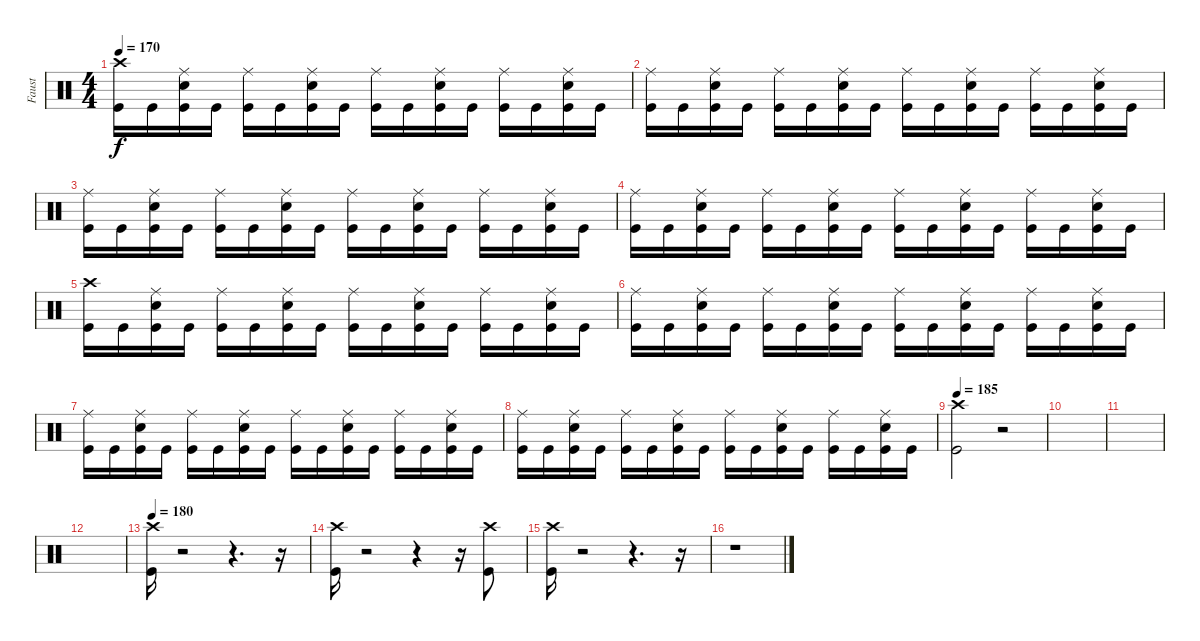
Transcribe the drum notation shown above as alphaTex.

\track ("Faust" "Faust") {instrument percussion}
\staff {score}
\articulation defaults
\ts (4 4)
\tempo 170
\clef neutral
\ks c
("Kick (hit)" "Crash high (hit)").16{dy f} "Kick (hit)".16 ("Kick (hit)" "Snare (hit) 2" "Ride (middle)").16 "Kick (hit)".16 ("Kick (hit)" "Ride (middle)").16 "Kick (hit)".16 ("Kick (hit)" "Snare (hit) 2" "Ride (middle)").16 "Kick (hit)".16 ("Kick (hit)" "Ride (middle)").16 "Kick (hit)".16 ("Kick (hit)" "Snare (hit) 2" "Ride (middle)").16 "Kick (hit)".16 ("Kick (hit)" "Ride (middle)").16 "Kick (hit)".16 ("Kick (hit)" "Snare (hit) 2" "Ride (middle)").16 "Kick (hit)".16 |
("Kick (hit)" "Ride (middle)").16 "Kick (hit)".16 ("Kick (hit)" "Snare (hit) 2" "Ride (middle)").16 "Kick (hit)".16 ("Kick (hit)" "Ride (middle)").16 "Kick (hit)".16 ("Kick (hit)" "Snare (hit) 2" "Ride (middle)").16 "Kick (hit)".16 ("Kick (hit)" "Ride (middle)").16 "Kick (hit)".16 ("Kick (hit)" "Snare (hit) 2" "Ride (middle)").16 "Kick (hit)".16 ("Kick (hit)" "Ride (middle)").16 "Kick (hit)".16 ("Kick (hit)" "Snare (hit) 2" "Ride (middle)").16 "Kick (hit)".16 |
("Kick (hit)" "Ride (middle)").16 "Kick (hit)".16 ("Kick (hit)" "Snare (hit) 2" "Ride (middle)").16 "Kick (hit)".16 ("Kick (hit)" "Ride (middle)").16 "Kick (hit)".16 ("Kick (hit)" "Snare (hit) 2" "Ride (middle)").16 "Kick (hit)".16 ("Kick (hit)" "Ride (middle)").16 "Kick (hit)".16 ("Kick (hit)" "Snare (hit) 2" "Ride (middle)").16 "Kick (hit)".16 ("Kick (hit)" "Ride (middle)").16 "Kick (hit)".16 ("Kick (hit)" "Snare (hit) 2" "Ride (middle)").16 "Kick (hit)".16 |
("Kick (hit)" "Ride (middle)").16 "Kick (hit)".16 ("Kick (hit)" "Snare (hit) 2" "Ride (middle)").16 "Kick (hit)".16 ("Kick (hit)" "Ride (middle)").16 "Kick (hit)".16 ("Kick (hit)" "Snare (hit) 2" "Ride (middle)").16 "Kick (hit)".16 ("Kick (hit)" "Ride (middle)").16 "Kick (hit)".16 ("Kick (hit)" "Snare (hit) 2" "Ride (middle)").16 "Kick (hit)".16 ("Kick (hit)" "Ride (middle)").16 "Kick (hit)".16 ("Kick (hit)" "Snare (hit) 2" "Ride (middle)").16 "Kick (hit)".16 |
("Kick (hit)" "Crash high (hit)").16 "Kick (hit)".16 ("Kick (hit)" "Snare (hit) 2" "Ride (middle)").16 "Kick (hit)".16 ("Kick (hit)" "Ride (middle)").16 "Kick (hit)".16 ("Kick (hit)" "Snare (hit) 2" "Ride (middle)").16 "Kick (hit)".16 ("Kick (hit)" "Ride (middle)").16 "Kick (hit)".16 ("Kick (hit)" "Snare (hit) 2" "Ride (middle)").16 "Kick (hit)".16 ("Kick (hit)" "Ride (middle)").16 "Kick (hit)".16 ("Kick (hit)" "Snare (hit) 2" "Ride (middle)").16 "Kick (hit)".16 |
("Kick (hit)" "Ride (middle)").16 "Kick (hit)".16 ("Kick (hit)" "Snare (hit) 2" "Ride (middle)").16 "Kick (hit)".16 ("Kick (hit)" "Ride (middle)").16 "Kick (hit)".16 ("Kick (hit)" "Snare (hit) 2" "Ride (middle)").16 "Kick (hit)".16 ("Kick (hit)" "Ride (middle)").16 "Kick (hit)".16 ("Kick (hit)" "Snare (hit) 2" "Ride (middle)").16 "Kick (hit)".16 ("Kick (hit)" "Ride (middle)").16 "Kick (hit)".16 ("Kick (hit)" "Snare (hit) 2" "Ride (middle)").16 "Kick (hit)".16 |
("Kick (hit)" "Ride (middle)").16 "Kick (hit)".16 ("Kick (hit)" "Snare (hit) 2" "Ride (middle)").16 "Kick (hit)".16 ("Kick (hit)" "Ride (middle)").16 "Kick (hit)".16 ("Kick (hit)" "Snare (hit) 2" "Ride (middle)").16 "Kick (hit)".16 ("Kick (hit)" "Ride (middle)").16 "Kick (hit)".16 ("Kick (hit)" "Snare (hit) 2" "Ride (middle)").16 "Kick (hit)".16 ("Kick (hit)" "Ride (middle)").16 "Kick (hit)".16 ("Kick (hit)" "Snare (hit) 2" "Ride (middle)").16 "Kick (hit)".16 |
("Kick (hit)" "Ride (middle)").16 "Kick (hit)".16 ("Kick (hit)" "Snare (hit) 2" "Ride (middle)").16 "Kick (hit)".16 ("Kick (hit)" "Ride (middle)").16 "Kick (hit)".16 ("Kick (hit)" "Snare (hit) 2" "Ride (middle)").16 "Kick (hit)".16 ("Kick (hit)" "Ride (middle)").16 "Kick (hit)".16 ("Kick (hit)" "Snare (hit) 2" "Ride (middle)").16 "Kick (hit)".16 ("Kick (hit)" "Ride (middle)").16 "Kick (hit)".16 ("Kick (hit)" "Snare (hit) 2" "Ride (middle)").16 "Kick (hit)".16 |
\tempo 185
("Kick (hit)" "Crash high (hit)").2 r.2 |
|
|
|
\tempo 180
("Kick (hit)" "Crash high (hit)").16 r.2 r.4{d} r.16 |
("Kick (hit)" "Crash high (hit)").16 r.2 r.4 r.16 ("Kick (hit)" "Crash high (hit)").8 |
("Kick (hit)" "Crash high (hit)").16 r.2 r.4{d} r.16 |
r.1
